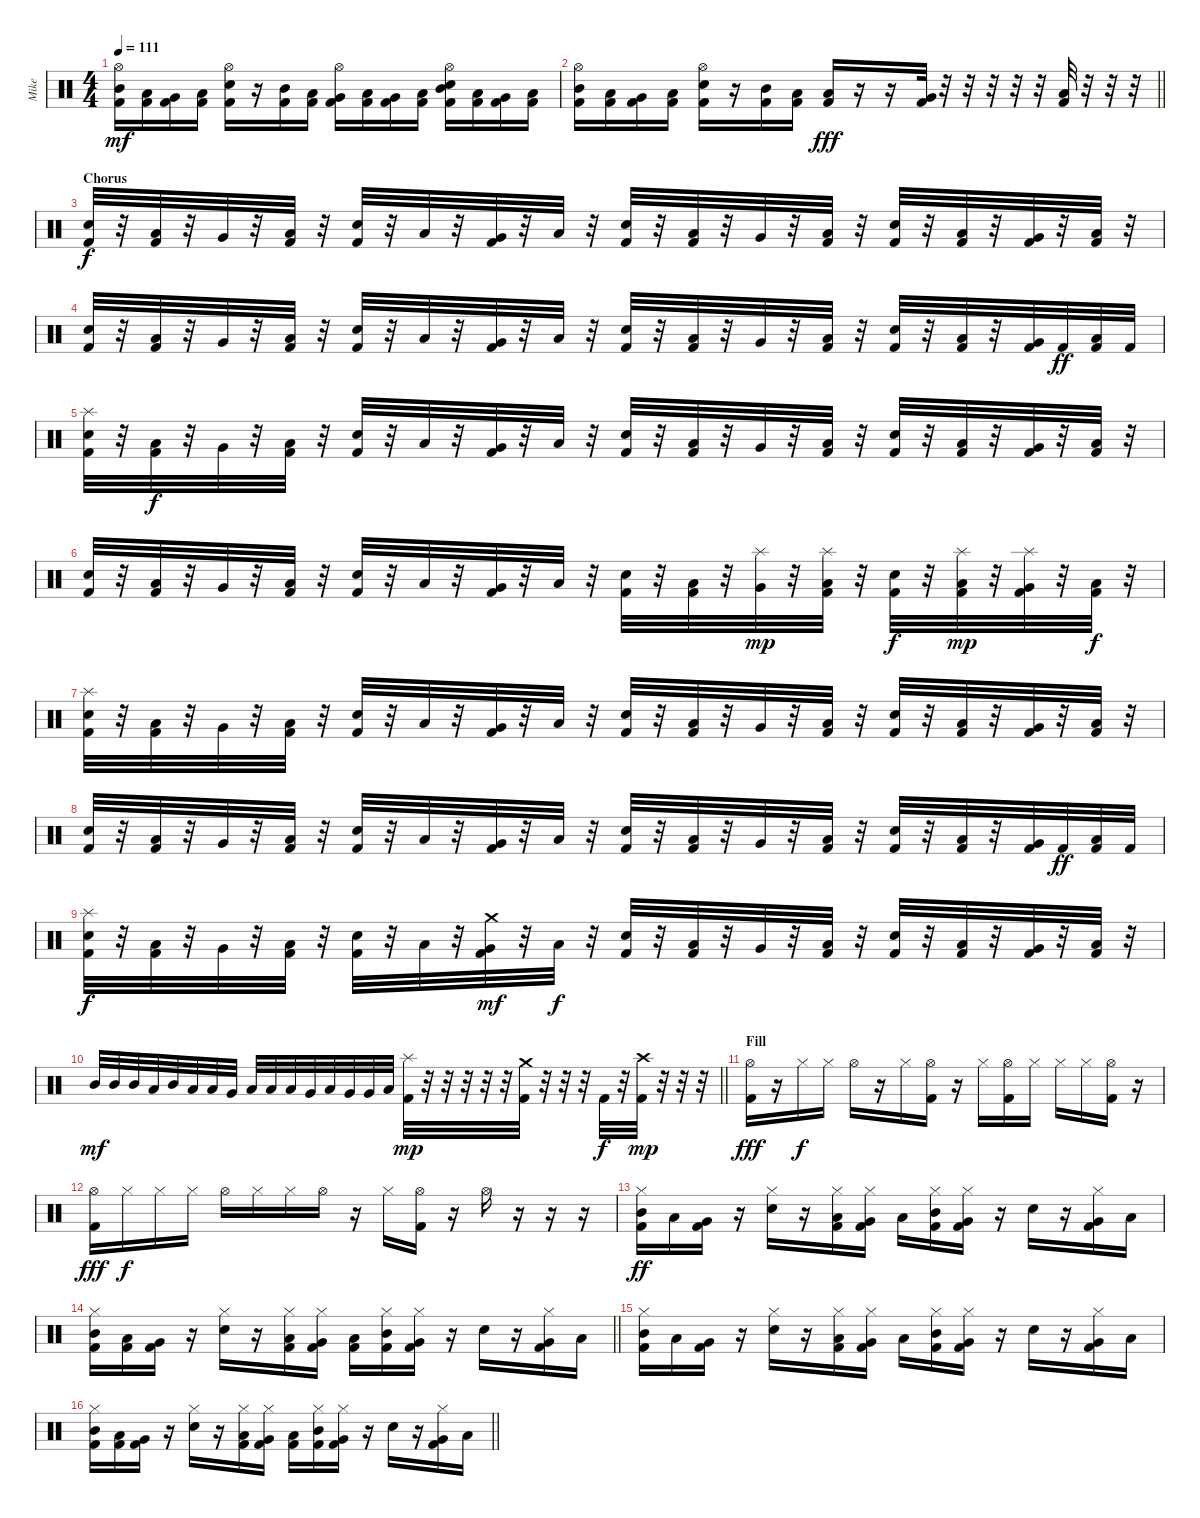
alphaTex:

\track ("Mike" "Mike") {instrument percussion}
\staff {score}
\articulation defaults
\ts (4 4)
\tempo 111
\clef neutral
\ks c
("Hi-Hat (open)" "Mid Tom (hit)" "Kick (hit) 2").16{dy mf} ("Low Tom (hit)" "Kick (hit) 2").16 ("Very Low Tom (hit)" "Kick (hit) 2").16 ("Low Tom (hit)" "Kick (hit) 2").16 ("Hi-Hat (open)" "Snare (hit) 2" "Kick (hit) 2").16 r.16 ("Mid Tom (hit)" "Kick (hit) 2").16 ("Low Tom (hit)" "Kick (hit) 2").16 ("Hi-Hat (open)" "Very Low Tom (hit)" "Kick (hit) 2").16 ("Low Tom (hit)" "Kick (hit) 2").16 ("Very Low Tom (hit)" "Kick (hit) 2").16 ("Low Tom (hit)" "Kick (hit) 2").16 ("Hi-Hat (open)" "Mid Tom (hit)" "Snare (hit) 2" "Kick (hit) 2").16 ("Low Tom (hit)" "Kick (hit) 2").16 ("Very Low Tom (hit)" "Kick (hit) 2").16 ("Low Tom (hit)" "Kick (hit) 2").16 |
\barLineRight lightlight
("Hi-Hat (open)" "Mid Tom (hit)" "Kick (hit) 2").16 ("Low Tom (hit)" "Kick (hit) 2").16 ("Very Low Tom (hit)" "Kick (hit) 2").16 ("Low Tom (hit)" "Kick (hit) 2").16 ("Hi-Hat (open)" "Snare (hit) 2" "Kick (hit) 2").16 r.16 ("Mid Tom (hit)" "Kick (hit) 2").16 ("Low Tom (hit)" "Kick (hit) 2").16 ("Low Floor Tom (hit)" "Kick (hit) 2").16{dy fff} r.16 r.16 ("Very Low Tom (hit)" "Kick (hit) 2").32 r.32 r.32 r.32 r.32 r.32 ("Low Tom (hit)" "Kick (hit) 2").32 r.32 r.32 r.32 |
\section ("" "Chorus")
("Snare (hit) 2" "Kick (hit) 2").32{dy f} r.32 ("Low Tom (hit)" "Kick (hit) 2").32 r.32 "Very Low Tom (hit)".32 r.32 ("Low Floor Tom (hit)" "Kick (hit) 2").32 r.32 ("Snare (hit) 2" "Kick (hit) 2").32 r.32 "Low Tom (hit)".32 r.32 ("Very Low Tom (hit)" "Kick (hit) 2").32 r.32 "Low Floor Tom (hit)".32 r.32 ("Snare (hit) 2" "Kick (hit) 2").32 r.32 ("Low Tom (hit)" "Kick (hit) 2").32 r.32 "Very Low Tom (hit)".32 r.32 ("Low Floor Tom (hit)" "Kick (hit) 2").32 r.32 ("Snare (hit) 2" "Kick (hit) 2").32 r.32 ("Low Tom (hit)" "Kick (hit) 2").32 r.32 ("Very Low Tom (hit)" "Kick (hit) 2").32 r.32 ("Low Floor Tom (hit)" "Kick (hit) 2").32 r.32 |
("Snare (hit) 2" "Kick (hit) 2").32 r.32 ("Low Tom (hit)" "Kick (hit) 2").32 r.32 "Very Low Tom (hit)".32 r.32 ("Low Floor Tom (hit)" "Kick (hit) 2").32 r.32 ("Snare (hit) 2" "Kick (hit) 2").32 r.32 "Low Tom (hit)".32 r.32 ("Very Low Tom (hit)" "Kick (hit) 2").32 r.32 "Low Floor Tom (hit)".32 r.32 ("Snare (hit) 2" "Kick (hit) 2").32 r.32 ("Low Tom (hit)" "Kick (hit) 2").32 r.32 "Very Low Tom (hit)".32 r.32 ("Low Floor Tom (hit)" "Kick (hit) 2").32 r.32 ("Snare (hit) 2" "Kick (hit) 2").32 r.32 ("Low Tom (hit)" "Kick (hit) 2").32 r.32 ("Very Low Tom (hit)" "Kick (hit) 2").32 "Kick (hit) 2".32{dy ff} ("Low Floor Tom (hit)" "Kick (hit) 2").32 "Kick (hit) 2".32 |
("Splash (hit)" "Snare (hit) 2" "Kick (hit) 2").32 r.32 ("Low Tom (hit)" "Kick (hit) 2").32{dy f} r.32 "Very Low Tom (hit)".32 r.32 ("Low Floor Tom (hit)" "Kick (hit) 2").32 r.32 ("Snare (hit) 2" "Kick (hit) 2").32 r.32 "Low Tom (hit)".32 r.32 ("Very Low Tom (hit)" "Kick (hit) 2").32 r.32 "Low Floor Tom (hit)".32 r.32 ("Snare (hit) 2" "Kick (hit) 2").32 r.32 ("Low Tom (hit)" "Kick (hit) 2").32 r.32 "Very Low Tom (hit)".32 r.32 ("Low Floor Tom (hit)" "Kick (hit) 2").32 r.32 ("Snare (hit) 2" "Kick (hit) 2").32 r.32 ("Low Tom (hit)" "Kick (hit) 2").32 r.32 ("Very Low Tom (hit)" "Kick (hit) 2").32 r.32 ("Low Floor Tom (hit)" "Kick (hit) 2").32 r.32 |
("Snare (hit) 2" "Kick (hit) 2").32 r.32 ("Low Tom (hit)" "Kick (hit) 2").32 r.32 "Very Low Tom (hit)".32 r.32 ("Low Floor Tom (hit)" "Kick (hit) 2").32 r.32 ("Snare (hit) 2" "Kick (hit) 2").32 r.32 "Low Tom (hit)".32 r.32 ("Very Low Tom (hit)" "Kick (hit) 2").32 r.32 "Low Floor Tom (hit)".32 r.32 ("Snare (hit) 2" "Kick (hit) 2").32 r.32 ("Low Tom (hit)" "Kick (hit) 2").32 r.32 ("Splash (hit)" "Very Low Tom (hit)").32{dy mp} r.32 ("Splash (hit)" "Low Floor Tom (hit)" "Kick (hit) 2").32 r.32 ("Snare (hit) 2" "Kick (hit) 2").32{dy f} r.32 ("Splash (hit)" "Low Tom (hit)" "Kick (hit) 2").32{dy mp} r.32 ("Splash (hit)" "Very Low Tom (hit)" "Kick (hit) 2").32 r.32 ("Low Floor Tom (hit)" "Kick (hit) 2").32{dy f} r.32 |
("Splash (hit)" "Snare (hit) 2" "Kick (hit) 2").32 r.32 ("Low Tom (hit)" "Kick (hit) 2").32 r.32 "Very Low Tom (hit)".32 r.32 ("Low Floor Tom (hit)" "Kick (hit) 2").32 r.32 ("Snare (hit) 2" "Kick (hit) 2").32 r.32 "Low Tom (hit)".32 r.32 ("Very Low Tom (hit)" "Kick (hit) 2").32 r.32 "Low Floor Tom (hit)".32 r.32 ("Snare (hit) 2" "Kick (hit) 2").32 r.32 ("Low Tom (hit)" "Kick (hit) 2").32 r.32 "Very Low Tom (hit)".32 r.32 ("Low Floor Tom (hit)" "Kick (hit) 2").32 r.32 ("Snare (hit) 2" "Kick (hit) 2").32 r.32 ("Low Tom (hit)" "Kick (hit) 2").32 r.32 ("Very Low Tom (hit)" "Kick (hit) 2").32 r.32 ("Low Floor Tom (hit)" "Kick (hit) 2").32 r.32 |
("Snare (hit) 2" "Kick (hit) 2").32 r.32 ("Low Tom (hit)" "Kick (hit) 2").32 r.32 "Very Low Tom (hit)".32 r.32 ("Low Floor Tom (hit)" "Kick (hit) 2").32 r.32 ("Snare (hit) 2" "Kick (hit) 2").32 r.32 "Low Tom (hit)".32 r.32 ("Very Low Tom (hit)" "Kick (hit) 2").32 r.32 "Low Floor Tom (hit)".32 r.32 ("Snare (hit) 2" "Kick (hit) 2").32 r.32 ("Low Tom (hit)" "Kick (hit) 2").32 r.32 "Very Low Tom (hit)".32 r.32 ("Low Floor Tom (hit)" "Kick (hit) 2").32 r.32 ("Snare (hit) 2" "Kick (hit) 2").32 r.32 ("Low Tom (hit)" "Kick (hit) 2").32 r.32 ("Very Low Tom (hit)" "Kick (hit) 2").32 "Kick (hit) 2".32{dy ff} ("Low Floor Tom (hit)" "Kick (hit) 2").32 "Kick (hit) 2".32 |
("Splash (hit)" "Snare (hit) 2" "Kick (hit) 2").32{dy f} r.32 ("Low Tom (hit)" "Kick (hit) 2").32 r.32 "Very Low Tom (hit)".32 r.32 ("Low Floor Tom (hit)" "Kick (hit) 2").32 r.32 ("Snare (hit) 2" "Kick (hit) 2").32 r.32 "Low Tom (hit)".32 r.32 ("Crash medium (hit)" "Very Low Tom (hit)" "Kick (hit) 2").32{dy mf} r.32 "Low Floor Tom (hit)".32{dy f} r.32 ("Snare (hit) 2" "Kick (hit) 2").32 r.32 ("Low Tom (hit)" "Kick (hit) 2").32 r.32 "Very Low Tom (hit)".32 r.32 ("Low Floor Tom (hit)" "Kick (hit) 2").32 r.32 ("Snare (hit) 2" "Kick (hit) 2").32 r.32 ("Low Tom (hit)" "Kick (hit) 2").32 r.32 ("Very Low Tom (hit)" "Kick (hit) 2").32 r.32 ("Low Floor Tom (hit)" "Kick (hit) 2").32 r.32 |
\barLineRight lightlight "Mid Tom (hit)".32{dy mf} "Mid Tom (hit)".32 "Mid Tom (hit)".32 "Low Tom (hit)".32 "Mid Tom (hit)".32 "Low Tom (hit)".32 "Low Tom (hit)".32 "Very Low Tom (hit)".32 "Low Tom (hit)".32 "Low Tom (hit)".32 "Low Tom (hit)".32 "Very Low Tom (hit)".32 "Low Tom (hit)".32 "Very Low Tom (hit)".32 "Very Low Tom (hit)".32 "Low Floor Tom (hit)".32
("Splash (hit)" "Kick (hit) 2").32{dy mp} r.32 r.32 r.32 r.32 r.32 ("Crash medium (hit)" "Kick (hit) 2").32 r.32 r.32 r.32 "Kick (hit) 2".32{dy f} r.32 ("Crash high (hit)" "Kick (hit) 2").32{dy mp} r.32 r.32 r.32 |
\section ("" "Fill")
("Hi-Hat (open)" "Kick (hit) 2").16{dy fff} r.16 "Hi-Hat (closed)".16{dy f} "Hi-Hat (closed)".16 "Hi-Hat (open)".16 r.16 "Hi-Hat (closed)".16 ("Hi-Hat (open)" "Kick (hit) 2").16 r.16 "Hi-Hat (closed)".16 ("Hi-Hat (open)" "Kick (hit) 2").16 "Hi-Hat (closed)".16 "Hi-Hat (closed)".16 "Hi-Hat (closed)".16 ("Hi-Hat (open)" "Kick (hit) 2").16 r.16 |
("Hi-Hat (open)" "Kick (hit) 2").16{dy fff} "Hi-Hat (closed)".16{dy f} "Hi-Hat (closed)".16 "Hi-Hat (closed)".16 "Hi-Hat (open)".16 "Hi-Hat (closed)".16 "Hi-Hat (closed)".16 "Hi-Hat (open)".16 r.16 "Hi-Hat (closed)".16 ("Hi-Hat (open)" "Kick (hit) 2").16 r.16 "Hi-Hat (open)".16 r.16 r.16 r.16 |
("Hi-Hat (closed)" "Mid Tom (hit)" "Kick (hit) 2").16{dy ff} "Low Tom (hit)".16 ("Very Low Tom (hit)" "Kick (hit) 2").16 r.16 ("Hi-Hat (closed)" "Snare (hit) 2").16 r.16 ("Hi-Hat (closed)" "Low Tom (hit)" "Kick (hit) 2").16 ("Hi-Hat (closed)" "Very Low Tom (hit)" "Kick (hit) 2").16 "Low Tom (hit)".16 ("Hi-Hat (closed)" "Mid Tom (hit)" "Kick (hit) 2").16 ("Hi-Hat (closed)" "Very Low Tom (hit)" "Kick (hit) 2").16 r.16 "Snare (hit) 2".16 r.16 ("Hi-Hat (closed)" "Very Low Tom (hit)" "Kick (hit) 2").16 "Low Tom (hit)".16 |
\barLineRight lightlight
("Hi-Hat (closed)" "Mid Tom (hit)" "Kick (hit) 2").16 ("Low Tom (hit)" "Kick (hit) 2").16 ("Very Low Tom (hit)" "Kick (hit) 2").16 r.16 ("Hi-Hat (closed)" "Snare (hit) 2").16 r.16 ("Hi-Hat (closed)" "Low Tom (hit)" "Kick (hit) 2").16 ("Hi-Hat (closed)" "Very Low Tom (hit)" "Kick (hit) 2").16 ("Low Tom (hit)" "Kick (hit) 2").16 ("Hi-Hat (closed)" "Mid Tom (hit)" "Kick (hit) 2").16 ("Hi-Hat (closed)" "Very Low Tom (hit)" "Kick (hit) 2").16 r.16 "Snare (hit) 2".16 r.16 ("Hi-Hat (closed)" "Very Low Tom (hit)" "Kick (hit) 2").16 "Low Tom (hit)".16 |
("Hi-Hat (closed)" "Mid Tom (hit)" "Kick (hit) 2").16 "Low Tom (hit)".16 ("Very Low Tom (hit)" "Kick (hit) 2").16 r.16 ("Hi-Hat (closed)" "Snare (hit) 2").16 r.16 ("Hi-Hat (closed)" "Low Tom (hit)" "Kick (hit) 2").16 ("Hi-Hat (closed)" "Very Low Tom (hit)" "Kick (hit) 2").16 "Low Tom (hit)".16 ("Hi-Hat (closed)" "Mid Tom (hit)" "Kick (hit) 2").16 ("Hi-Hat (closed)" "Very Low Tom (hit)" "Kick (hit) 2").16 r.16 "Snare (hit) 2".16 r.16 ("Hi-Hat (closed)" "Very Low Tom (hit)" "Kick (hit) 2").16 "Low Tom (hit)".16 |
\barLineRight lightlight
("Hi-Hat (closed)" "Mid Tom (hit)" "Kick (hit) 2").16 ("Low Tom (hit)" "Kick (hit) 2").16 ("Very Low Tom (hit)" "Kick (hit) 2").16 r.16 ("Hi-Hat (closed)" "Snare (hit) 2").16 r.16 ("Hi-Hat (closed)" "Low Tom (hit)" "Kick (hit) 2").16 ("Hi-Hat (closed)" "Very Low Tom (hit)" "Kick (hit) 2").16 ("Low Tom (hit)" "Kick (hit) 2").16 ("Hi-Hat (closed)" "Mid Tom (hit)" "Kick (hit) 2").16 ("Hi-Hat (closed)" "Very Low Tom (hit)" "Kick (hit) 2").16 r.16 "Snare (hit) 2".16 r.16 ("Hi-Hat (closed)" "Very Low Tom (hit)" "Kick (hit) 2").16 "Low Tom (hit)".16
